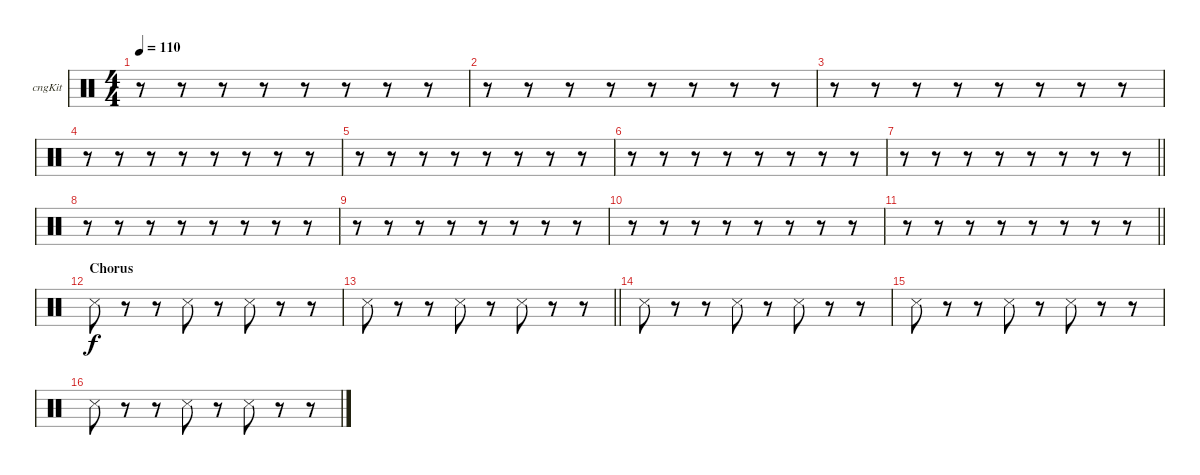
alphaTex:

\bracketExtendMode groupsimilarinstruments
\firstSystemTrackNameOrientation horizontal
\otherSystemsTrackNameOrientation horizontal
\track ("Congas" "cngKit") {instrument percussion}
\staff {score}
\articulation defaults
\ts (4 4)
\tempo 110
\clef neutral
\ks c
r.8{dy f} r.8 r.8 r.8 r.8 r.8 r.8 r.8 |
r.8 r.8 r.8 r.8 r.8 r.8 r.8 r.8 |
r.8 r.8 r.8 r.8 r.8 r.8 r.8 r.8 |
r.8 r.8 r.8 r.8 r.8 r.8 r.8 r.8 |
r.8 r.8 r.8 r.8 r.8 r.8 r.8 r.8 |
r.8 r.8 r.8 r.8 r.8 r.8 r.8 r.8 |
\barLineRight lightlight
r.8 r.8 r.8 r.8 r.8 r.8 r.8 r.8 |
r.8 r.8 r.8 r.8 r.8 r.8 r.8 r.8 |
r.8 r.8 r.8 r.8 r.8 r.8 r.8 r.8 |
r.8 r.8 r.8 r.8 r.8 r.8 r.8 r.8 |
\barLineRight lightlight
r.8 r.8 r.8 r.8 r.8 r.8 r.8 r.8 |
\section ("" "Chorus")
"Snare (side stick) 3".8 r.8 r.8 "Snare (side stick) 3".8 r.8 "Snare (side stick) 3".8 r.8 r.8 |
\barLineRight lightlight "Snare (side stick) 3".8
r.8 r.8 "Snare (side stick) 3".8 r.8 "Snare (side stick) 3".8 r.8 r.8 |
"Snare (side stick) 3".8 r.8 r.8 "Snare (side stick) 3".8 r.8 "Snare (side stick) 3".8 r.8 r.8 |
"Snare (side stick) 3".8 r.8 r.8 "Snare (side stick) 3".8 r.8 "Snare (side stick) 3".8 r.8 r.8 |
"Snare (side stick) 3".8 r.8 r.8 "Snare (side stick) 3".8 r.8 "Snare (side stick) 3".8 r.8 r.8
